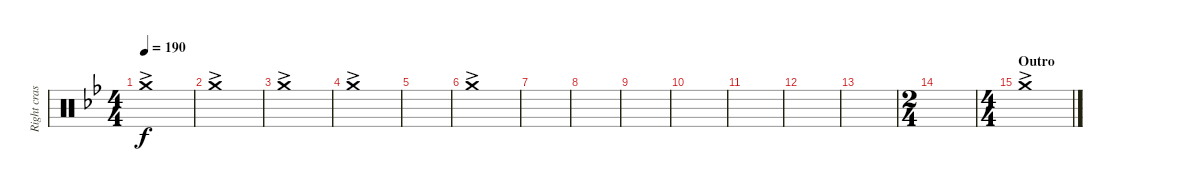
\track ("Right crash" "Right cras") {instrument percussion}
\staff {score}
\articulation defaults
\ts (4 4)
\tempo 190
\clef neutral
\ks bb "Crash medium (hit)"{ac}.1{dy f}
|
"Crash medium (hit)"{ac}.1 |
"Crash medium (hit)"{ac}.1 |
"Crash medium (hit)"{ac}.1 |
|
"Crash medium (hit)"{ac}.1 |
|
|
|
|
|
|
|
\ts (2 4)
|
\ts (4 4)
\section ("" "Outro")
"Crash medium (hit)"{ac}.1
